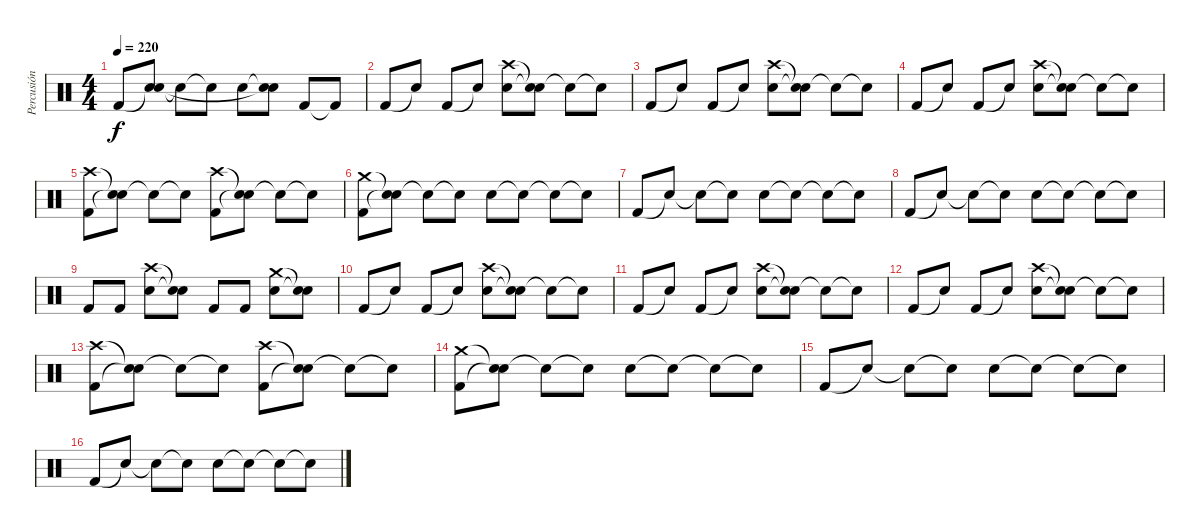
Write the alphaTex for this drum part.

\track ("Percusión" "Percusión") {instrument percussion}
\staff {score}
\articulation defaults
\ts (4 4)
\tempo 220
\clef neutral
\ks c "Kick (hit) 2".8{dy f}
("Snare (hit)"{t} "Snare (hit)"{t}).8 "Snare (hit)"{t}.8 "Snare (hit)"{t}.8 "Snare (hit) 2".8 ("Snare (hit)"{t} "Snare (hit)"{t}).8 "Kick (hit) 2".8 "Kick (hit) 2"{t}.8 |
"Kick (hit) 2".8 "Snare (hit)"{t}.8 "Kick (hit) 2".8 "Snare (hit)"{t}.8 ("Snare (hit) 2" "Crash high (hit)").8 ("Snare (hit)"{t} "Snare (hit)"{t}).8 "Snare (hit)"{t}.8 "Snare (hit)"{t}.8 |
"Kick (hit) 2".8 "Snare (hit)"{t}.8 "Kick (hit) 2".8 "Snare (hit)"{t}.8 ("Snare (hit) 2" "Crash high (hit)").8 ("Snare (hit)"{t} "Snare (hit)"{t}).8 "Snare (hit)"{t}.8 "Snare (hit)"{t}.8 |
"Kick (hit) 2".8 "Snare (hit)"{t}.8 "Kick (hit) 2".8 "Snare (hit)"{t}.8 ("Snare (hit) 2" "Crash high (hit)").8 ("Snare (hit)"{t} "Snare (hit)"{t}).8 "Snare (hit)"{t}.8 "Snare (hit)"{t}.8 |
("Kick (hit) 2" "Crash high (hit)").8 ("Snare (hit)"{t} "Snare (hit)"{t}).8 "Snare (hit)"{t}.8 "Snare (hit)"{t}.8 ("Kick (hit) 2" "Crash high (hit)").8 ("Snare (hit)"{t} "Snare (hit)"{t}).8 "Snare (hit)"{t}.8 "Snare (hit)"{t}.8 |
("Kick (hit) 2" "Crash medium (hit)").8 ("Snare (hit)"{t} "Snare (hit)"{t}).8 "Snare (hit)"{t}.8 "Snare (hit)"{t}.8 "Snare (hit) 2".8 "Snare (hit)"{t}.8 "Snare (hit)"{t}.8 "Snare (hit)"{t}.8 |
"Kick (hit) 2".8 "Snare (hit)"{t}.8 "Snare (hit)"{t}.8 "Snare (hit)"{t}.8 "Snare (hit) 2".8 "Snare (hit)"{t}.8 "Snare (hit)"{t}.8 "Snare (hit)"{t}.8 |
"Kick (hit) 2".8 "Snare (hit)"{t}.8 "Snare (hit)"{t}.8 "Snare (hit)"{t}.8 "Snare (hit) 2".8 "Snare (hit)"{t}.8 "Snare (hit)"{t}.8 "Snare (hit)"{t}.8 |
"Kick (hit) 2".8 "Kick (hit) 2".8 ("Snare (hit) 2" "Crash high (hit)").8 ("Snare (hit)"{t} "Snare (hit)"{t}).8 "Kick (hit) 2".8 "Kick (hit) 2".8 ("Snare (hit) 2" "Crash medium (hit)").8 ("Snare (hit)"{t} "Snare (hit)"{t}).8 |
"Kick (hit) 2".8 "Snare (hit)"{t}.8 "Kick (hit) 2".8 "Snare (hit)"{t}.8 ("Snare (hit) 2" "Crash high (hit)").8 ("Snare (hit)"{t} "Snare (hit)"{t}).8 "Snare (hit)"{t}.8 "Snare (hit)"{t}.8 |
"Kick (hit) 2".8 "Snare (hit)"{t}.8 "Kick (hit) 2".8 "Snare (hit)"{t}.8 ("Snare (hit) 2" "Crash high (hit)").8 ("Snare (hit)"{t} "Snare (hit)"{t}).8 "Snare (hit)"{t}.8 "Snare (hit)"{t}.8 |
"Kick (hit) 2".8 "Snare (hit)"{t}.8 "Kick (hit) 2".8 "Snare (hit)"{t}.8 ("Snare (hit) 2" "Crash high (hit)").8 ("Snare (hit)"{t} "Snare (hit)"{t}).8 "Snare (hit)"{t}.8 "Snare (hit)"{t}.8 |
("Kick (hit) 2" "Crash high (hit)").8 ("Snare (hit)"{t} "Snare (hit)"{t}).8 "Snare (hit)"{t}.8 "Snare (hit)"{t}.8 ("Kick (hit) 2" "Crash high (hit)").8 ("Snare (hit)"{t} "Snare (hit)"{t}).8 "Snare (hit)"{t}.8 "Snare (hit)"{t}.8 |
("Kick (hit) 2" "Crash medium (hit)").8 ("Snare (hit)"{t} "Snare (hit)"{t}).8 "Snare (hit)"{t}.8 "Snare (hit)"{t}.8 "Snare (hit) 2".8 "Snare (hit)"{t}.8 "Snare (hit)"{t}.8 "Snare (hit)"{t}.8 |
"Kick (hit) 2".8 "Snare (hit)"{t}.8 "Snare (hit)"{t}.8 "Snare (hit)"{t}.8 "Snare (hit) 2".8 "Snare (hit)"{t}.8 "Snare (hit)"{t}.8 "Snare (hit)"{t}.8 |
"Kick (hit) 2".8 "Snare (hit)"{t}.8 "Snare (hit)"{t}.8 "Snare (hit)"{t}.8 "Snare (hit) 2".8 "Snare (hit)"{t}.8 "Snare (hit)"{t}.8 "Snare (hit)"{t}.8
